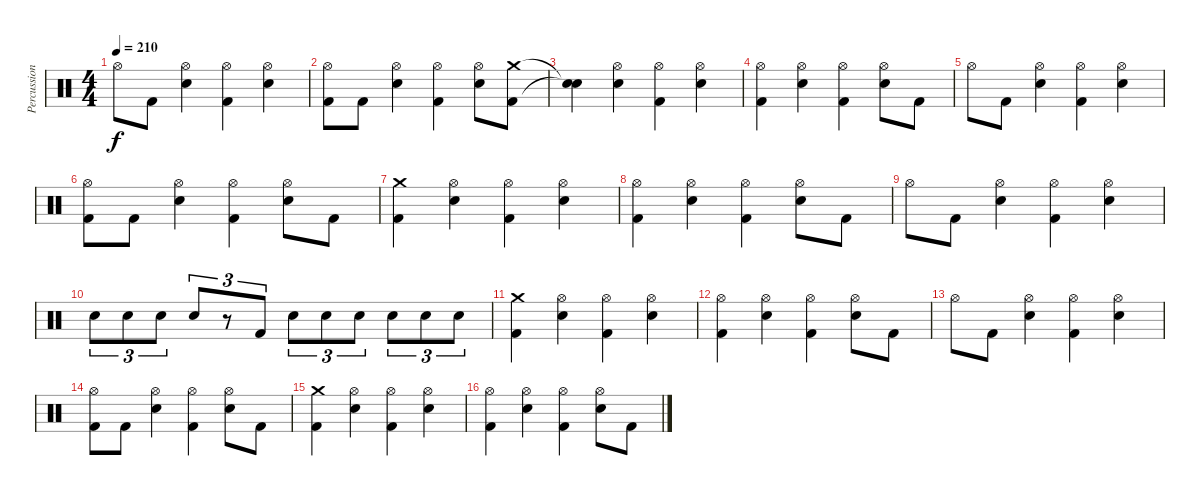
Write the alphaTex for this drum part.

\track ("Percussions" "Percussion") {instrument percussion}
\staff {score}
\articulation defaults
\ts (4 4)
\tempo 210
\clef neutral
\ks c "Hi-Hat (open)".8{dy f} "Kick (hit) 2".8
("Hi-Hat (open)" "Snare (hit) 2").4 ("Hi-Hat (open)" "Kick (hit) 2").4 ("Hi-Hat (open)" "Snare (hit) 2").4 |
("Hi-Hat (open)" "Kick (hit) 2").8 "Kick (hit) 2".8 ("Hi-Hat (open)" "Snare (hit) 2").4 ("Hi-Hat (open)" "Kick (hit) 2").4 ("Hi-Hat (open)" "Snare (hit) 2").8 ("Crash medium (hit)" "Kick (hit) 2").8 |
("Snare (hit)"{t} "Snare (hit)"{t}).4 ("Hi-Hat (open)" "Snare (hit) 2").4 ("Hi-Hat (open)" "Kick (hit) 2").4 ("Hi-Hat (open)" "Snare (hit) 2").4 |
("Hi-Hat (open)" "Kick (hit) 2").4 ("Hi-Hat (open)" "Snare (hit) 2").4 ("Hi-Hat (open)" "Kick (hit) 2").4 ("Hi-Hat (open)" "Snare (hit) 2").8 "Kick (hit) 2".8 |
"Hi-Hat (open)".8 "Kick (hit) 2".8 ("Hi-Hat (open)" "Snare (hit) 2").4 ("Hi-Hat (open)" "Kick (hit) 2").4 ("Hi-Hat (open)" "Snare (hit) 2").4 |
("Hi-Hat (open)" "Kick (hit) 2").8 "Kick (hit) 2".8 ("Hi-Hat (open)" "Snare (hit) 2").4 ("Hi-Hat (open)" "Kick (hit) 2").4 ("Hi-Hat (open)" "Snare (hit) 2").8 "Kick (hit) 2".8 |
("Crash medium (hit)" "Kick (hit) 2").4 ("Hi-Hat (open)" "Snare (hit) 2").4 ("Hi-Hat (open)" "Kick (hit) 2").4 ("Hi-Hat (open)" "Snare (hit) 2").4 |
("Hi-Hat (open)" "Kick (hit) 2").4 ("Hi-Hat (open)" "Snare (hit) 2").4 ("Hi-Hat (open)" "Kick (hit) 2").4 ("Hi-Hat (open)" "Snare (hit) 2").8 "Kick (hit) 2".8 |
"Hi-Hat (open)".8 "Kick (hit) 2".8 ("Hi-Hat (open)" "Snare (hit) 2").4 ("Hi-Hat (open)" "Kick (hit) 2").4 ("Hi-Hat (open)" "Snare (hit) 2").4 |
"Snare (hit) 2".8{tu (3 2)} "Snare (hit) 2".8{tu (3 2)} "Snare (hit) 2".8{tu (3 2)} "Snare (hit) 2".8{tu (3 2)} r.8{tu (3 2)} "Kick (hit) 2".8{tu (3 2)} "Snare (hit) 2".8{tu (3 2)} "Snare (hit) 2".8{tu (3 2)} "Snare (hit) 2".8{tu (3 2)} "Snare (hit) 2".8{tu (3 2)} "Snare (hit) 2".8{tu (3 2)} "Snare (hit) 2".8{tu (3 2)} |
("Crash medium (hit)" "Kick (hit) 2").4 ("Hi-Hat (open)" "Snare (hit) 2").4 ("Hi-Hat (open)" "Kick (hit) 2").4 ("Hi-Hat (open)" "Snare (hit) 2").4 |
("Hi-Hat (open)" "Kick (hit) 2").4 ("Hi-Hat (open)" "Snare (hit) 2").4 ("Hi-Hat (open)" "Kick (hit) 2").4 ("Hi-Hat (open)" "Snare (hit) 2").8 "Kick (hit) 2".8 |
"Hi-Hat (open)".8 "Kick (hit) 2".8 ("Hi-Hat (open)" "Snare (hit) 2").4 ("Hi-Hat (open)" "Kick (hit) 2").4 ("Hi-Hat (open)" "Snare (hit) 2").4 |
("Hi-Hat (open)" "Kick (hit) 2").8 "Kick (hit) 2".8 ("Hi-Hat (open)" "Snare (hit) 2").4 ("Hi-Hat (open)" "Kick (hit) 2").4 ("Hi-Hat (open)" "Snare (hit) 2").8 "Kick (hit) 2".8 |
("Crash medium (hit)" "Kick (hit) 2").4 ("Hi-Hat (open)" "Snare (hit) 2").4 ("Hi-Hat (open)" "Kick (hit) 2").4 ("Hi-Hat (open)" "Snare (hit) 2").4 |
("Hi-Hat (open)" "Kick (hit) 2").4 ("Hi-Hat (open)" "Snare (hit) 2").4 ("Hi-Hat (open)" "Kick (hit) 2").4 ("Hi-Hat (open)" "Snare (hit) 2").8 "Kick (hit) 2".8
